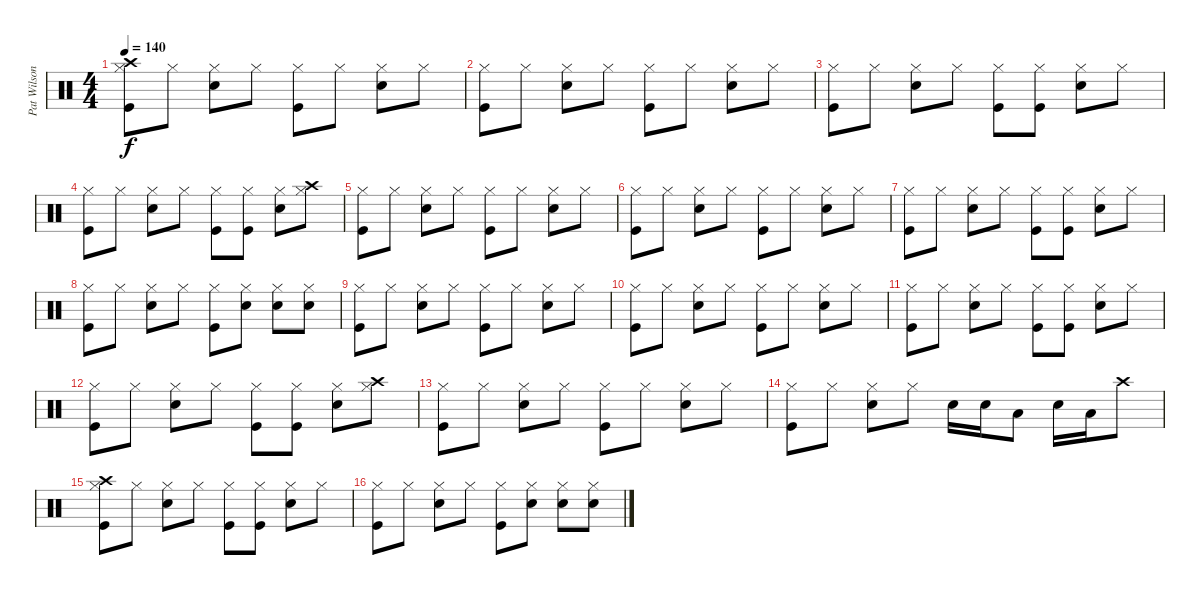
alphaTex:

\track ("Pat Wilson " "Pat Wilson") {instrument percussion}
\staff {score}
\articulation defaults
\ts (4 4)
\tempo 140
\clef neutral
\ks c
("Crash high (hit)" "Kick (hit)" "Hi-Hat (closed)").8{dy f} "Hi-Hat (closed)".8 ("Snare (hit) 2" "Hi-Hat (closed)").8 "Hi-Hat (closed)".8 ("Kick (hit)" "Hi-Hat (closed)").8 "Hi-Hat (closed)".8 ("Snare (hit) 2" "Hi-Hat (closed)").8 "Hi-Hat (closed)".8 |
("Kick (hit)" "Hi-Hat (closed)").8 "Hi-Hat (closed)".8 ("Snare (hit) 2" "Hi-Hat (closed)").8 "Hi-Hat (closed)".8 ("Kick (hit)" "Hi-Hat (closed)").8 "Hi-Hat (closed)".8 ("Snare (hit) 2" "Hi-Hat (closed)").8 "Hi-Hat (closed)".8 |
("Kick (hit)" "Hi-Hat (closed)").8 "Hi-Hat (closed)".8 ("Snare (hit) 2" "Hi-Hat (closed)").8 "Hi-Hat (closed)".8 ("Kick (hit)" "Hi-Hat (closed)").8 ("Kick (hit)" "Hi-Hat (closed)").8 ("Snare (hit) 2" "Hi-Hat (closed)").8 "Hi-Hat (closed)".8 |
("Kick (hit)" "Hi-Hat (closed)").8 "Hi-Hat (closed)".8 ("Snare (hit) 2" "Hi-Hat (closed)").8 "Hi-Hat (closed)".8 ("Kick (hit)" "Hi-Hat (closed)").8 ("Kick (hit)" "Hi-Hat (closed)").8 ("Snare (hit) 2" "Hi-Hat (closed)").8 ("Crash high (hit)" "Hi-Hat (closed)").8 |
("Kick (hit)" "Hi-Hat (closed)").8 "Hi-Hat (closed)".8 ("Snare (hit) 2" "Hi-Hat (closed)").8 "Hi-Hat (closed)".8 ("Kick (hit)" "Hi-Hat (closed)").8 "Hi-Hat (closed)".8 ("Snare (hit) 2" "Hi-Hat (closed)").8 "Hi-Hat (closed)".8 |
("Kick (hit)" "Hi-Hat (closed)").8 "Hi-Hat (closed)".8 ("Snare (hit) 2" "Hi-Hat (closed)").8 "Hi-Hat (closed)".8 ("Kick (hit)" "Hi-Hat (closed)").8 "Hi-Hat (closed)".8 ("Snare (hit) 2" "Hi-Hat (closed)").8 "Hi-Hat (closed)".8 |
("Kick (hit)" "Hi-Hat (closed)").8 "Hi-Hat (closed)".8 ("Snare (hit) 2" "Hi-Hat (closed)").8 "Hi-Hat (closed)".8 ("Kick (hit)" "Hi-Hat (closed)").8 ("Kick (hit)" "Hi-Hat (closed)").8 ("Snare (hit) 2" "Hi-Hat (closed)").8 "Hi-Hat (closed)".8 |
("Kick (hit)" "Hi-Hat (closed)").8 "Hi-Hat (closed)".8 ("Snare (hit) 2" "Hi-Hat (closed)").8 "Hi-Hat (closed)".8 ("Kick (hit)" "Hi-Hat (closed)").8 ("Snare (hit) 2" "Hi-Hat (closed)").8 ("Snare (hit) 2" "Hi-Hat (closed)").8 ("Snare (hit) 2" "Hi-Hat (closed)").8 |
("Kick (hit)" "Hi-Hat (closed)").8 "Hi-Hat (closed)".8 ("Snare (hit) 2" "Hi-Hat (closed)").8 "Hi-Hat (closed)".8 ("Kick (hit)" "Hi-Hat (closed)").8 "Hi-Hat (closed)".8 ("Snare (hit) 2" "Hi-Hat (closed)").8 "Hi-Hat (closed)".8 |
("Kick (hit)" "Hi-Hat (closed)").8 "Hi-Hat (closed)".8 ("Snare (hit) 2" "Hi-Hat (closed)").8 "Hi-Hat (closed)".8 ("Kick (hit)" "Hi-Hat (closed)").8 "Hi-Hat (closed)".8 ("Snare (hit) 2" "Hi-Hat (closed)").8 "Hi-Hat (closed)".8 |
("Kick (hit)" "Hi-Hat (closed)").8 "Hi-Hat (closed)".8 ("Snare (hit) 2" "Hi-Hat (closed)").8 "Hi-Hat (closed)".8 ("Kick (hit)" "Hi-Hat (closed)").8 ("Kick (hit)" "Hi-Hat (closed)").8 ("Snare (hit) 2" "Hi-Hat (closed)").8 "Hi-Hat (closed)".8 |
("Kick (hit)" "Hi-Hat (closed)").8 "Hi-Hat (closed)".8 ("Snare (hit) 2" "Hi-Hat (closed)").8 "Hi-Hat (closed)".8 ("Kick (hit)" "Hi-Hat (closed)").8 ("Kick (hit)" "Hi-Hat (closed)").8 ("Snare (hit) 2" "Hi-Hat (closed)").8 ("Crash high (hit)" "Hi-Hat (closed)").8 |
("Kick (hit)" "Hi-Hat (closed)").8 "Hi-Hat (closed)".8 ("Snare (hit) 2" "Hi-Hat (closed)").8 "Hi-Hat (closed)".8 ("Kick (hit)" "Hi-Hat (closed)").8 "Hi-Hat (closed)".8 ("Snare (hit) 2" "Hi-Hat (closed)").8 "Hi-Hat (closed)".8 |
("Kick (hit)" "Hi-Hat (closed)").8 "Hi-Hat (closed)".8 ("Snare (hit) 2" "Hi-Hat (closed)").8 "Hi-Hat (closed)".8 "Snare (hit) 2".16 "Snare (hit) 2".16 "Low Tom (hit)".8 "Snare (hit) 2".16 "Low Tom (hit)".16 "Crash high (hit)".8 |
("Crash high (hit)" "Kick (hit)" "Hi-Hat (closed)").8 "Hi-Hat (closed)".8 ("Snare (hit) 2" "Hi-Hat (closed)").8 "Hi-Hat (closed)".8 ("Kick (hit)" "Hi-Hat (closed)").8 ("Kick (hit)" "Hi-Hat (closed)").8 ("Snare (hit) 2" "Hi-Hat (closed)").8 "Hi-Hat (closed)".8 |
("Kick (hit)" "Hi-Hat (closed)").8 "Hi-Hat (closed)".8 ("Snare (hit) 2" "Hi-Hat (closed)").8 "Hi-Hat (closed)".8 ("Kick (hit)" "Hi-Hat (closed)").8 ("Snare (hit) 2" "Hi-Hat (closed)").8 ("Snare (hit) 2" "Hi-Hat (closed)").8 ("Snare (hit) 2" "Hi-Hat (closed)").8
